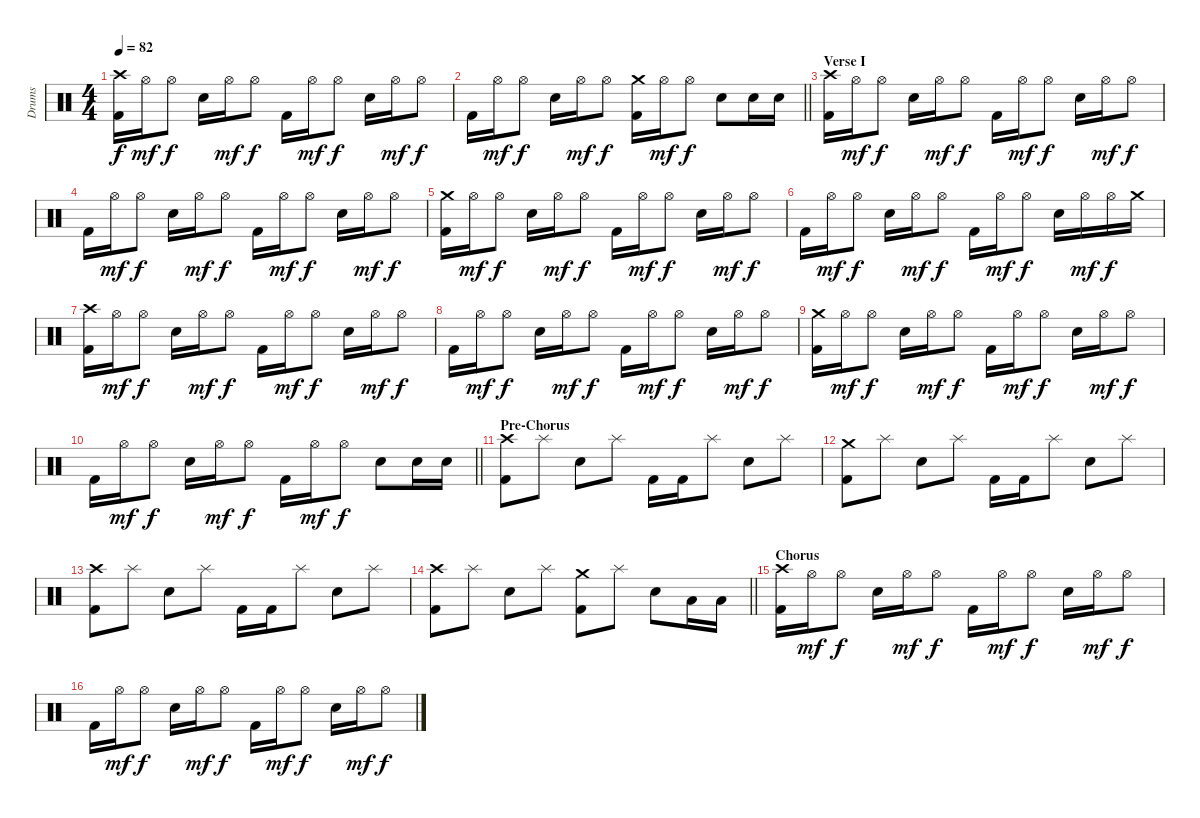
\track ("Drums" "Drums") {instrument percussion}
\staff {score}
\articulation defaults
\ts (4 4)
\tempo 82
\clef neutral
\ks c
("Crash high (hit)" "Kick (hit) 2").16{dy f} "Hi-Hat (open)".16{dy mf} "Hi-Hat (open)".8{dy f} "Snare (hit) 2".16 "Hi-Hat (open)".16{dy mf} "Hi-Hat (open)".8{dy f} "Kick (hit) 2".16 "Hi-Hat (open)".16{dy mf} "Hi-Hat (open)".8{dy f} "Snare (hit) 2".16 "Hi-Hat (open)".16{dy mf} "Hi-Hat (open)".8{dy f} |
\barLineRight lightlight "Kick (hit) 2".16 "Hi-Hat (open)".16{dy mf} "Hi-Hat (open)".8{dy f} "Snare (hit) 2".16 "Hi-Hat (open)".16{dy mf} "Hi-Hat (open)".8{dy f}
("Crash medium (hit)" "Kick (hit) 2").16 "Hi-Hat (open)".16{dy mf} "Hi-Hat (open)".8{dy f} "Snare (hit) 2".8 "Snare (hit) 2".16 "Snare (hit) 2".16 |
\section ("" "Verse I")
("Crash high (hit)" "Kick (hit) 2").16 "Hi-Hat (open)".16{dy mf} "Hi-Hat (open)".8{dy f} "Snare (hit) 2".16 "Hi-Hat (open)".16{dy mf} "Hi-Hat (open)".8{dy f} "Kick (hit) 2".16 "Hi-Hat (open)".16{dy mf} "Hi-Hat (open)".8{dy f} "Snare (hit) 2".16 "Hi-Hat (open)".16{dy mf} "Hi-Hat (open)".8{dy f} |
"Kick (hit) 2".16 "Hi-Hat (open)".16{dy mf} "Hi-Hat (open)".8{dy f} "Snare (hit) 2".16 "Hi-Hat (open)".16{dy mf} "Hi-Hat (open)".8{dy f} "Kick (hit) 2".16 "Hi-Hat (open)".16{dy mf} "Hi-Hat (open)".8{dy f} "Snare (hit) 2".16 "Hi-Hat (open)".16{dy mf} "Hi-Hat (open)".8{dy f} |
("Crash medium (hit)" "Kick (hit) 2").16 "Hi-Hat (open)".16{dy mf} "Hi-Hat (open)".8{dy f} "Snare (hit) 2".16 "Hi-Hat (open)".16{dy mf} "Hi-Hat (open)".8{dy f} "Kick (hit) 2".16 "Hi-Hat (open)".16{dy mf} "Hi-Hat (open)".8{dy f} "Snare (hit) 2".16 "Hi-Hat (open)".16{dy mf} "Hi-Hat (open)".8{dy f} |
"Kick (hit) 2".16 "Hi-Hat (open)".16{dy mf} "Hi-Hat (open)".8{dy f} "Snare (hit) 2".16 "Hi-Hat (open)".16{dy mf} "Hi-Hat (open)".8{dy f} "Kick (hit) 2".16 "Hi-Hat (open)".16{dy mf} "Hi-Hat (open)".8{dy f} "Snare (hit) 2".16 "Hi-Hat (open)".16{dy mf} "Hi-Hat (open)".16{dy f} "Crash medium (hit)".16 |
("Crash high (hit)" "Kick (hit) 2").16 "Hi-Hat (open)".16{dy mf} "Hi-Hat (open)".8{dy f} "Snare (hit) 2".16 "Hi-Hat (open)".16{dy mf} "Hi-Hat (open)".8{dy f} "Kick (hit) 2".16 "Hi-Hat (open)".16{dy mf} "Hi-Hat (open)".8{dy f} "Snare (hit) 2".16 "Hi-Hat (open)".16{dy mf} "Hi-Hat (open)".8{dy f} |
"Kick (hit) 2".16 "Hi-Hat (open)".16{dy mf} "Hi-Hat (open)".8{dy f} "Snare (hit) 2".16 "Hi-Hat (open)".16{dy mf} "Hi-Hat (open)".8{dy f} "Kick (hit) 2".16 "Hi-Hat (open)".16{dy mf} "Hi-Hat (open)".8{dy f} "Snare (hit) 2".16 "Hi-Hat (open)".16{dy mf} "Hi-Hat (open)".8{dy f} |
("Crash medium (hit)" "Kick (hit) 2").16 "Hi-Hat (open)".16{dy mf} "Hi-Hat (open)".8{dy f} "Snare (hit) 2".16 "Hi-Hat (open)".16{dy mf} "Hi-Hat (open)".8{dy f} "Kick (hit) 2".16 "Hi-Hat (open)".16{dy mf} "Hi-Hat (open)".8{dy f} "Snare (hit) 2".16 "Hi-Hat (open)".16{dy mf} "Hi-Hat (open)".8{dy f} |
\barLineRight lightlight "Kick (hit) 2".16 "Hi-Hat (open)".16{dy mf} "Hi-Hat (open)".8{dy f} "Snare (hit) 2".16 "Hi-Hat (open)".16{dy mf} "Hi-Hat (open)".8{dy f} "Kick (hit) 2".16 "Hi-Hat (open)".16{dy mf} "Hi-Hat (open)".8{dy f} "Snare (hit) 2".8 "Snare (hit) 2".16 "Snare (hit) 2".16
|
\section ("" "Pre-Chorus")
("Crash high (hit)" "Kick (hit) 2").8 "Splash (hit)".8 "Snare (hit) 2".8 "Splash (hit)".8 "Kick (hit) 2".16 "Kick (hit) 2".16 "Splash (hit)".8 "Snare (hit) 2".8 "Splash (hit)".8 |
("Crash medium (hit)" "Kick (hit) 2").8 "Splash (hit)".8 "Snare (hit) 2".8 "Splash (hit)".8 "Kick (hit) 2".16 "Kick (hit) 2".16 "Splash (hit)".8 "Snare (hit) 2".8 "Splash (hit)".8 |
("Crash high (hit)" "Kick (hit) 2").8 "Splash (hit)".8 "Snare (hit) 2".8 "Splash (hit)".8 "Kick (hit) 2".16 "Kick (hit) 2".16 "Splash (hit)".8 "Snare (hit) 2".8 "Splash (hit)".8 |
\barLineRight lightlight
("Crash high (hit)" "Kick (hit) 2").8 "Splash (hit)".8 "Snare (hit) 2".8 "Splash (hit)".8 ("Crash medium (hit)" "Kick (hit) 2").8 "Splash (hit)".8 "Snare (hit) 2".8 "Low Tom (hit)".16 "Low Tom (hit)".16 |
\section ("" "Chorus")
("Crash high (hit)" "Kick (hit) 2").16 "Hi-Hat (open)".16{dy mf} "Hi-Hat (open)".8{dy f} "Snare (hit) 2".16 "Hi-Hat (open)".16{dy mf} "Hi-Hat (open)".8{dy f} "Kick (hit) 2".16 "Hi-Hat (open)".16{dy mf} "Hi-Hat (open)".8{dy f} "Snare (hit) 2".16 "Hi-Hat (open)".16{dy mf} "Hi-Hat (open)".8{dy f} |
"Kick (hit) 2".16 "Hi-Hat (open)".16{dy mf} "Hi-Hat (open)".8{dy f} "Snare (hit) 2".16 "Hi-Hat (open)".16{dy mf} "Hi-Hat (open)".8{dy f} "Kick (hit) 2".16 "Hi-Hat (open)".16{dy mf} "Hi-Hat (open)".8{dy f} "Snare (hit) 2".16 "Hi-Hat (open)".16{dy mf} "Hi-Hat (open)".8{dy f}
